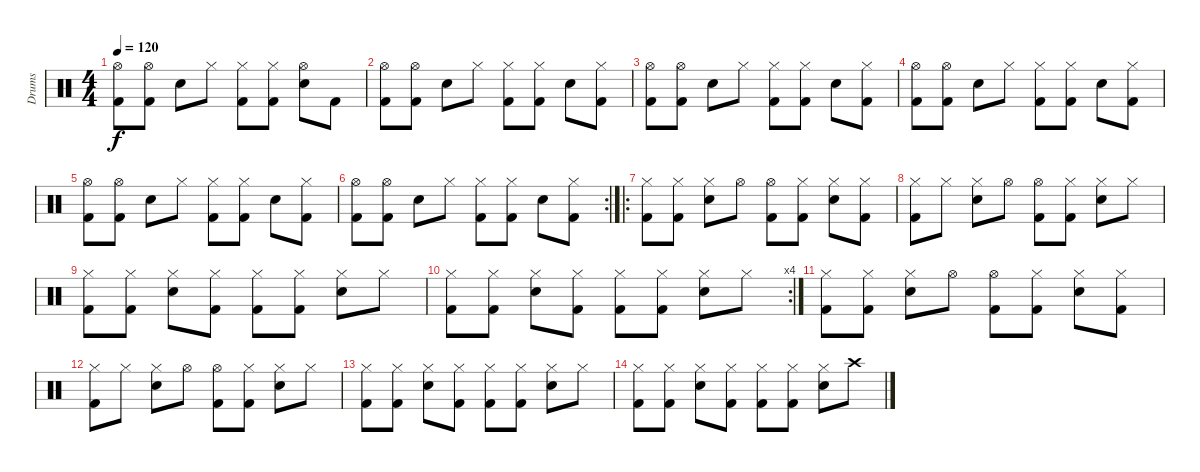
\track ("Drums" "Drums") {instrument percussion}
\staff {score}
\articulation defaults
\ts (4 4)
\tempo 120
\clef neutral
\ks c
("Hi-Hat (open)" "Kick (hit) 2").8{dy f} ("Hi-Hat (open)" "Kick (hit) 2").8 "Electric Snare (hit)".8 "Hi-Hat (closed)".8 ("Hi-Hat (closed)" "Kick (hit) 2").8 ("Hi-Hat (closed)" "Kick (hit) 2").8 ("Hi-Hat (open)" "Electric Snare (hit)").8 "Kick (hit) 2".8 |
("Hi-Hat (open)" "Kick (hit) 2").8 ("Hi-Hat (open)" "Kick (hit) 2").8 "Electric Snare (hit)".8 "Hi-Hat (closed)".8 ("Hi-Hat (closed)" "Kick (hit) 2").8 ("Hi-Hat (closed)" "Kick (hit) 2").8 "Electric Snare (hit)".8 ("Hi-Hat (closed)" "Kick (hit) 2").8 |
("Hi-Hat (open)" "Kick (hit) 2").8 ("Hi-Hat (open)" "Kick (hit) 2").8 "Electric Snare (hit)".8 "Hi-Hat (closed)".8 ("Hi-Hat (closed)" "Kick (hit) 2").8 ("Hi-Hat (closed)" "Kick (hit) 2").8 "Electric Snare (hit)".8 ("Hi-Hat (closed)" "Kick (hit) 2").8 |
("Hi-Hat (open)" "Kick (hit) 2").8 ("Hi-Hat (open)" "Kick (hit) 2").8 "Electric Snare (hit)".8 "Hi-Hat (closed)".8 ("Hi-Hat (closed)" "Kick (hit) 2").8 ("Hi-Hat (closed)" "Kick (hit) 2").8 "Electric Snare (hit)".8 ("Hi-Hat (closed)" "Kick (hit) 2").8 |
("Hi-Hat (open)" "Kick (hit) 2").8 ("Hi-Hat (open)" "Kick (hit) 2").8 "Electric Snare (hit)".8 "Hi-Hat (closed)".8 ("Hi-Hat (closed)" "Kick (hit) 2").8 ("Hi-Hat (closed)" "Kick (hit) 2").8 "Electric Snare (hit)".8 ("Hi-Hat (closed)" "Kick (hit) 2").8 |
\rc 2
("Hi-Hat (open)" "Kick (hit) 2").8 ("Hi-Hat (open)" "Kick (hit) 2").8 "Electric Snare (hit)".8 "Hi-Hat (closed)".8 ("Hi-Hat (closed)" "Kick (hit) 2").8 ("Hi-Hat (closed)" "Kick (hit) 2").8 "Electric Snare (hit)".8 ("Hi-Hat (closed)" "Kick (hit) 2").8 |
\ro
("Hi-Hat (closed)" "Kick (hit) 2").8 ("Hi-Hat (closed)" "Kick (hit) 2").8 ("Hi-Hat (closed)" "Electric Snare (hit)").8 "Hi-Hat (open)".8 ("Hi-Hat (open)" "Kick (hit) 2").8 ("Hi-Hat (closed)" "Kick (hit) 2").8 ("Hi-Hat (closed)" "Electric Snare (hit)").8 ("Hi-Hat (closed)" "Kick (hit) 2").8 |
("Hi-Hat (closed)" "Kick (hit) 2").8 "Hi-Hat (closed)".8 ("Hi-Hat (closed)" "Electric Snare (hit)").8 "Hi-Hat (open)".8 ("Hi-Hat (open)" "Kick (hit) 2").8 ("Hi-Hat (closed)" "Kick (hit) 2").8 ("Hi-Hat (closed)" "Electric Snare (hit)").8 "Hi-Hat (closed)".8 |
("Hi-Hat (closed)" "Kick (hit) 2").8 ("Hi-Hat (closed)" "Kick (hit) 2").8 ("Hi-Hat (closed)" "Electric Snare (hit)").8 ("Hi-Hat (closed)" "Kick (hit) 2").8 ("Hi-Hat (closed)" "Kick (hit) 2").8 ("Hi-Hat (closed)" "Kick (hit) 2").8 ("Hi-Hat (closed)" "Electric Snare (hit)").8 "Hi-Hat (closed)".8 |
\rc 4
("Hi-Hat (closed)" "Kick (hit) 2").8 ("Hi-Hat (closed)" "Kick (hit) 2").8 ("Hi-Hat (closed)" "Electric Snare (hit)").8 ("Hi-Hat (closed)" "Kick (hit) 2").8 ("Hi-Hat (closed)" "Kick (hit) 2").8 ("Hi-Hat (closed)" "Kick (hit) 2").8 ("Hi-Hat (closed)" "Electric Snare (hit)").8 "Hi-Hat (closed)".8 |
("Hi-Hat (closed)" "Kick (hit) 2").8 ("Hi-Hat (closed)" "Kick (hit) 2").8 ("Hi-Hat (closed)" "Electric Snare (hit)").8 "Hi-Hat (open)".8 ("Hi-Hat (open)" "Kick (hit) 2").8 ("Hi-Hat (closed)" "Kick (hit) 2").8 ("Hi-Hat (closed)" "Electric Snare (hit)").8 ("Hi-Hat (closed)" "Kick (hit) 2").8 |
("Hi-Hat (closed)" "Kick (hit) 2").8 "Hi-Hat (closed)".8 ("Hi-Hat (closed)" "Electric Snare (hit)").8 "Hi-Hat (open)".8 ("Hi-Hat (open)" "Kick (hit) 2").8 ("Hi-Hat (closed)" "Kick (hit) 2").8 ("Hi-Hat (closed)" "Electric Snare (hit)").8 "Hi-Hat (closed)".8 |
("Hi-Hat (closed)" "Kick (hit) 2").8 ("Hi-Hat (closed)" "Kick (hit) 2").8 ("Hi-Hat (closed)" "Electric Snare (hit)").8 ("Hi-Hat (closed)" "Kick (hit) 2").8 ("Hi-Hat (closed)" "Kick (hit) 2").8 ("Hi-Hat (closed)" "Kick (hit) 2").8 ("Hi-Hat (closed)" "Electric Snare (hit)").8 "Hi-Hat (closed)".8 |
("Hi-Hat (closed)" "Kick (hit) 2").8 ("Hi-Hat (closed)" "Kick (hit) 2").8 ("Hi-Hat (closed)" "Electric Snare (hit)").8 ("Hi-Hat (closed)" "Kick (hit) 2").8 ("Hi-Hat (closed)" "Kick (hit) 2").8 ("Hi-Hat (closed)" "Kick (hit) 2").8 ("Hi-Hat (closed)" "Electric Snare (hit)").8 "Crash high (hit)".8
